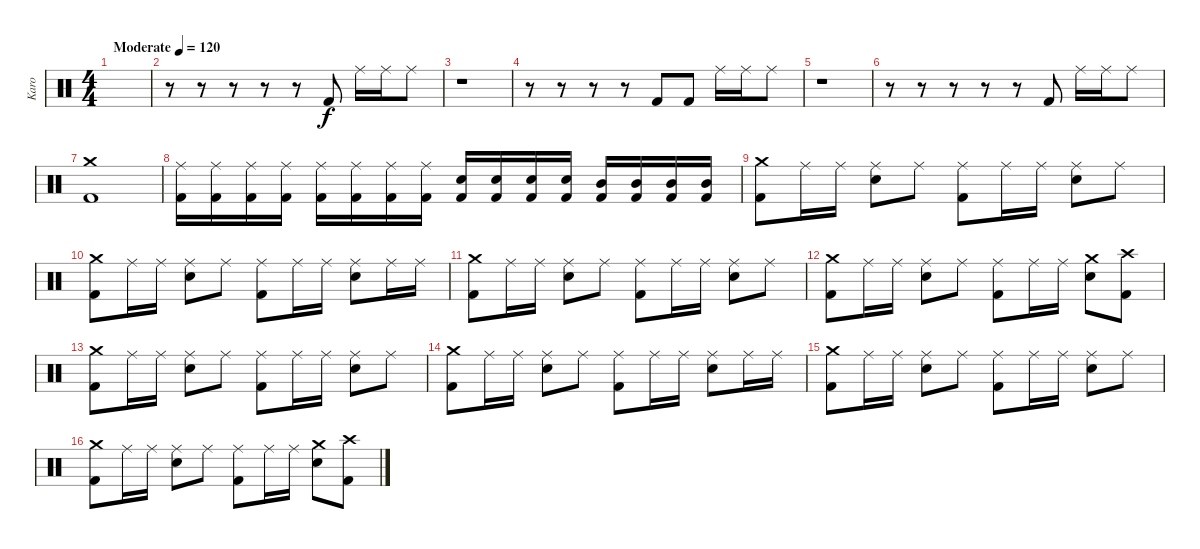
\track ("Karo" "Karo") {instrument percussion}
\staff {score}
\articulation defaults
\ts (4 4)
\tempo (120 "Moderate")
\clef neutral
\ks c
|
r.8 r.8 r.8 r.8 r.8 "Kick (hit) 2".8 "Ride (middle)".16 "Ride (middle)".16 "Ride (middle)".8 |
r.1 |
r.8 r.8 r.8 r.8 "Kick (hit) 2".8 "Kick (hit) 2".8 "Ride (middle)".16 "Ride (middle)".16 "Ride (middle)".8 |
r.1 |
r.8 r.8 r.8 r.8 r.8 "Kick (hit) 2".8 "Ride (middle)".16 "Ride (middle)".16 "Ride (middle)".8 |
("Crash medium (hit)" "Kick (hit) 2").1 |
("Ride (middle)" "Kick (hit) 2").16 ("Ride (middle)" "Kick (hit) 2").16 ("Ride (middle)" "Kick (hit) 2").16 ("Ride (middle)" "Kick (hit) 2").16 ("Ride (middle)" "Kick (hit) 2").16 ("Ride (middle)" "Kick (hit) 2").16 ("Ride (middle)" "Kick (hit) 2").16 ("Ride (middle)" "Kick (hit) 2").16 ("Electric Snare (hit)" "Kick (hit) 2").16 ("Electric Snare (hit)" "Kick (hit) 2").16 ("Electric Snare (hit)" "Kick (hit) 2").16 ("Electric Snare (hit)" "Kick (hit) 2").16 ("Mid Tom (hit)" "Kick (hit) 2").16 ("Mid Tom (hit)" "Kick (hit) 2").16 ("Mid Tom (hit)" "Kick (hit) 2").16 ("Mid Tom (hit)" "Kick (hit) 2").16 |
("Crash medium (hit)" "Kick (hit) 2").8 "Ride (middle)".16 "Ride (middle)".16 ("Ride (middle)" "Electric Snare (hit)").8 "Ride (middle)".8 ("Ride (middle)" "Kick (hit) 2").8 "Ride (middle)".16 "Ride (middle)".16 ("Ride (middle)" "Electric Snare (hit)").8 "Ride (middle)".8 |
("Crash medium (hit)" "Kick (hit) 2").8 "Ride (middle)".16 "Ride (middle)".16 ("Ride (middle)" "Electric Snare (hit)").8 "Ride (middle)".8 ("Ride (middle)" "Kick (hit) 2").8 "Ride (middle)".16 "Ride (middle)".16 ("Ride (middle)" "Electric Snare (hit)").8 "Ride (middle)".16 "Ride (middle)".16 |
("Crash medium (hit)" "Kick (hit) 2").8 "Ride (middle)".16 "Ride (middle)".16 ("Ride (middle)" "Electric Snare (hit)").8 "Ride (middle)".8 ("Ride (middle)" "Kick (hit) 2").8 "Ride (middle)".16 "Ride (middle)".16 ("Ride (middle)" "Electric Snare (hit)").8 "Ride (middle)".8 |
("Crash medium (hit)" "Kick (hit) 2").8 "Ride (middle)".16 "Ride (middle)".16 ("Ride (middle)" "Electric Snare (hit)").8 "Ride (middle)".8 ("Ride (middle)" "Kick (hit) 2").8 "Ride (middle)".16 "Ride (middle)".16 ("Crash medium (hit)" "Electric Snare (hit)").8 ("Crash high (hit)" "Kick (hit) 2").8 |
("Crash medium (hit)" "Kick (hit) 2").8 "Ride (middle)".16 "Ride (middle)".16 ("Ride (middle)" "Electric Snare (hit)").8 "Ride (middle)".8 ("Ride (middle)" "Kick (hit) 2").8 "Ride (middle)".16 "Ride (middle)".16 ("Ride (middle)" "Electric Snare (hit)").8 "Ride (middle)".8 |
("Crash medium (hit)" "Kick (hit) 2").8 "Ride (middle)".16 "Ride (middle)".16 ("Ride (middle)" "Electric Snare (hit)").8 "Ride (middle)".8 ("Ride (middle)" "Kick (hit) 2").8 "Ride (middle)".16 "Ride (middle)".16 ("Ride (middle)" "Electric Snare (hit)").8 "Ride (middle)".16 "Ride (middle)".16 |
("Crash medium (hit)" "Kick (hit) 2").8 "Ride (middle)".16 "Ride (middle)".16 ("Ride (middle)" "Electric Snare (hit)").8 "Ride (middle)".8 ("Ride (middle)" "Kick (hit) 2").8 "Ride (middle)".16 "Ride (middle)".16 ("Ride (middle)" "Electric Snare (hit)").8 "Ride (middle)".8 |
("Crash medium (hit)" "Kick (hit) 2").8 "Ride (middle)".16 "Ride (middle)".16 ("Ride (middle)" "Electric Snare (hit)").8 "Ride (middle)".8 ("Ride (middle)" "Kick (hit) 2").8 "Ride (middle)".16 "Ride (middle)".16 ("Crash medium (hit)" "Electric Snare (hit)").8 ("Crash high (hit)" "Kick (hit) 2").8
